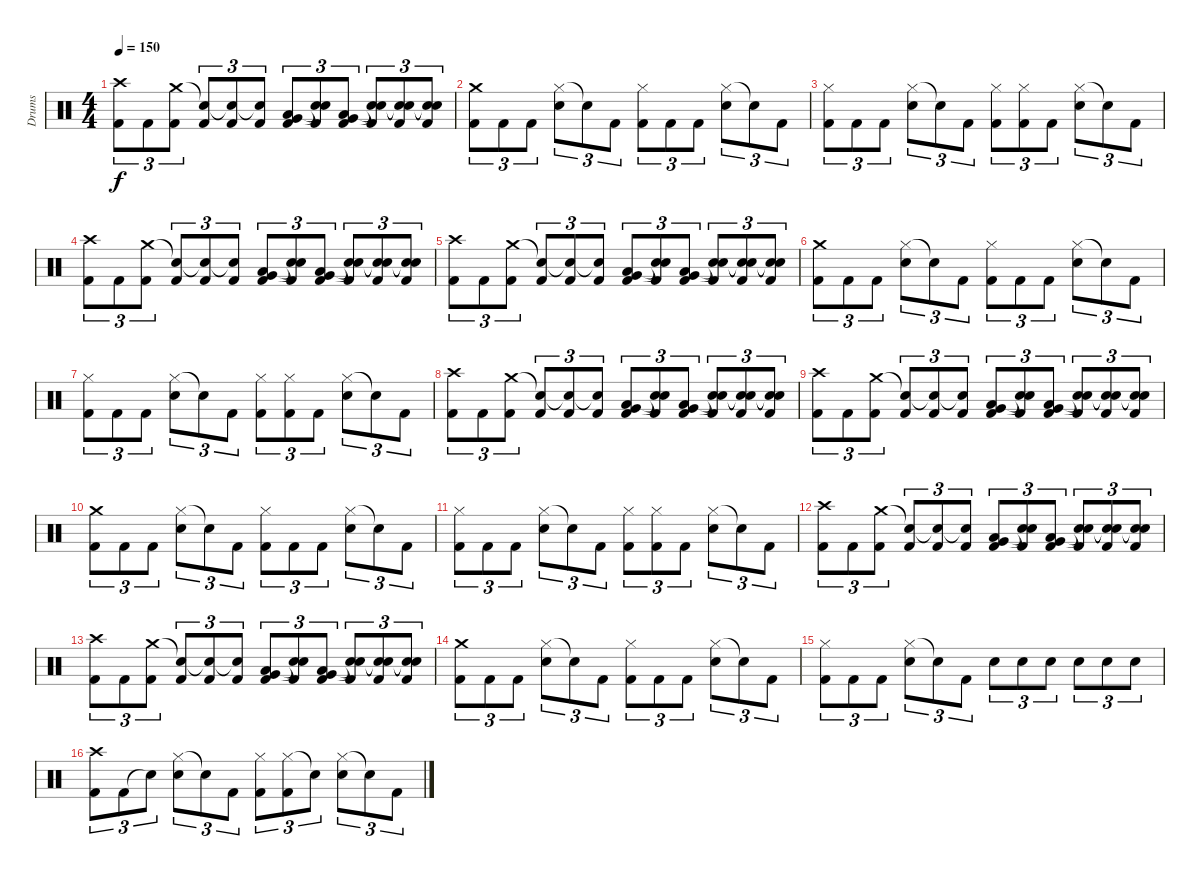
\track ("Drums" "Drums") {instrument percussion}
\staff {score}
\articulation defaults
\ts (4 4)
\tempo 150
\clef neutral
\ks c
("Crash high (hit)" "Kick (hit) 2").8{tu (3 2) dy f} "Kick (hit) 2".8{tu (3 2)} ("Crash medium (hit)" "Kick (hit) 2").8{tu (3 2)} ("Snare (hit)"{t} "Kick (hit) 2").8{tu (3 2)} ("Snare (hit)"{t} "Kick (hit) 2").8{tu (3 2)} ("Snare (hit)"{t} "Kick (hit) 2").8{tu (3 2)} ("Low Tom (hit)" "Very Low Tom (hit)" "Kick (hit) 2").8{tu (3 2)} ("Snare (hit)"{t} "Snare (hit)"{t} "Kick (hit) 2").8{tu (3 2)} ("Low Tom (hit)" "Very Low Tom (hit)" "Kick (hit) 2").8{tu (3 2)} ("Snare (hit)"{t} "Snare (hit)"{t} "Kick (hit) 2").8{tu (3 2)} ("Snare (hit)"{t} "Snare (hit)"{t} "Kick (hit) 2").8{tu (3 2)} ("Snare (hit)"{t} "Snare (hit)"{t} "Kick (hit) 2").8{tu (3 2)} |
("Crash medium (hit)" "Kick (hit) 2").8{tu (3 2)} "Kick (hit) 2".8{tu (3 2)} "Kick (hit) 2".8{tu (3 2)} ("Hi-Hat (closed)" "Electric Snare (hit)").8{tu (3 2)} "Snare (hit)"{t}.8{tu (3 2)} "Kick (hit) 2".8{tu (3 2)} ("Hi-Hat (closed)" "Kick (hit) 2").8{tu (3 2)} "Kick (hit) 2".8{tu (3 2)} "Kick (hit) 2".8{tu (3 2)} ("Hi-Hat (closed)" "Electric Snare (hit)").8{tu (3 2)} "Snare (hit)"{t}.8{tu (3 2)} "Kick (hit) 2".8{tu (3 2)} |
("Hi-Hat (closed)" "Kick (hit) 2").8{tu (3 2)} "Kick (hit) 2".8{tu (3 2)} "Kick (hit) 2".8{tu (3 2)} ("Hi-Hat (closed)" "Electric Snare (hit)").8{tu (3 2)} "Snare (hit)"{t}.8{tu (3 2)} "Kick (hit) 2".8{tu (3 2)} ("Hi-Hat (closed)" "Kick (hit) 2").8{tu (3 2)} ("Hi-Hat (closed)" "Kick (hit) 2").8{tu (3 2)} "Kick (hit) 2".8{tu (3 2)} ("Hi-Hat (closed)" "Electric Snare (hit)").8{tu (3 2)} "Snare (hit)"{t}.8{tu (3 2)} "Kick (hit) 2".8{tu (3 2)} |
("Crash high (hit)" "Kick (hit) 2").8{tu (3 2)} "Kick (hit) 2".8{tu (3 2)} ("Crash medium (hit)" "Kick (hit) 2").8{tu (3 2)} ("Snare (hit)"{t} "Kick (hit) 2").8{tu (3 2)} ("Snare (hit)"{t} "Kick (hit) 2").8{tu (3 2)} ("Snare (hit)"{t} "Kick (hit) 2").8{tu (3 2)} ("Low Tom (hit)" "Very Low Tom (hit)" "Kick (hit) 2").8{tu (3 2)} ("Snare (hit)"{t} "Snare (hit)"{t} "Kick (hit) 2").8{tu (3 2)} ("Low Tom (hit)" "Very Low Tom (hit)" "Kick (hit) 2").8{tu (3 2)} ("Snare (hit)"{t} "Snare (hit)"{t} "Kick (hit) 2").8{tu (3 2)} ("Snare (hit)"{t} "Snare (hit)"{t} "Kick (hit) 2").8{tu (3 2)} ("Snare (hit)"{t} "Snare (hit)"{t} "Kick (hit) 2").8{tu (3 2)} |
("Crash high (hit)" "Kick (hit) 2").8{tu (3 2)} "Kick (hit) 2".8{tu (3 2)} ("Crash medium (hit)" "Kick (hit) 2").8{tu (3 2)} ("Snare (hit)"{t} "Kick (hit) 2").8{tu (3 2)} ("Snare (hit)"{t} "Kick (hit) 2").8{tu (3 2)} ("Snare (hit)"{t} "Kick (hit) 2").8{tu (3 2)} ("Low Tom (hit)" "Very Low Tom (hit)" "Kick (hit) 2").8{tu (3 2)} ("Snare (hit)"{t} "Snare (hit)"{t} "Kick (hit) 2").8{tu (3 2)} ("Low Tom (hit)" "Very Low Tom (hit)" "Kick (hit) 2").8{tu (3 2)} ("Snare (hit)"{t} "Snare (hit)"{t} "Kick (hit) 2").8{tu (3 2)} ("Snare (hit)"{t} "Snare (hit)"{t} "Kick (hit) 2").8{tu (3 2)} ("Snare (hit)"{t} "Snare (hit)"{t} "Kick (hit) 2").8{tu (3 2)} |
("Crash medium (hit)" "Kick (hit) 2").8{tu (3 2)} "Kick (hit) 2".8{tu (3 2)} "Kick (hit) 2".8{tu (3 2)} ("Hi-Hat (closed)" "Electric Snare (hit)").8{tu (3 2)} "Snare (hit)"{t}.8{tu (3 2)} "Kick (hit) 2".8{tu (3 2)} ("Hi-Hat (closed)" "Kick (hit) 2").8{tu (3 2)} "Kick (hit) 2".8{tu (3 2)} "Kick (hit) 2".8{tu (3 2)} ("Hi-Hat (closed)" "Electric Snare (hit)").8{tu (3 2)} "Snare (hit)"{t}.8{tu (3 2)} "Kick (hit) 2".8{tu (3 2)} |
("Hi-Hat (closed)" "Kick (hit) 2").8{tu (3 2)} "Kick (hit) 2".8{tu (3 2)} "Kick (hit) 2".8{tu (3 2)} ("Hi-Hat (closed)" "Electric Snare (hit)").8{tu (3 2)} "Snare (hit)"{t}.8{tu (3 2)} "Kick (hit) 2".8{tu (3 2)} ("Hi-Hat (closed)" "Kick (hit) 2").8{tu (3 2)} ("Hi-Hat (closed)" "Kick (hit) 2").8{tu (3 2)} "Kick (hit) 2".8{tu (3 2)} ("Hi-Hat (closed)" "Electric Snare (hit)").8{tu (3 2)} "Snare (hit)"{t}.8{tu (3 2)} "Kick (hit) 2".8{tu (3 2)} |
("Crash high (hit)" "Kick (hit) 2").8{tu (3 2)} "Kick (hit) 2".8{tu (3 2)} ("Crash medium (hit)" "Kick (hit) 2").8{tu (3 2)} ("Snare (hit)"{t} "Kick (hit) 2").8{tu (3 2)} ("Snare (hit)"{t} "Kick (hit) 2").8{tu (3 2)} ("Snare (hit)"{t} "Kick (hit) 2").8{tu (3 2)} ("Low Tom (hit)" "Very Low Tom (hit)" "Kick (hit) 2").8{tu (3 2)} ("Snare (hit)"{t} "Snare (hit)"{t} "Kick (hit) 2").8{tu (3 2)} ("Low Tom (hit)" "Very Low Tom (hit)" "Kick (hit) 2").8{tu (3 2)} ("Snare (hit)"{t} "Snare (hit)"{t} "Kick (hit) 2").8{tu (3 2)} ("Snare (hit)"{t} "Snare (hit)"{t} "Kick (hit) 2").8{tu (3 2)} ("Snare (hit)"{t} "Snare (hit)"{t} "Kick (hit) 2").8{tu (3 2)} |
("Crash high (hit)" "Kick (hit) 2").8{tu (3 2)} "Kick (hit) 2".8{tu (3 2)} ("Crash medium (hit)" "Kick (hit) 2").8{tu (3 2)} ("Snare (hit)"{t} "Kick (hit) 2").8{tu (3 2)} ("Snare (hit)"{t} "Kick (hit) 2").8{tu (3 2)} ("Snare (hit)"{t} "Kick (hit) 2").8{tu (3 2)} ("Low Tom (hit)" "Very Low Tom (hit)" "Kick (hit) 2").8{tu (3 2)} ("Snare (hit)"{t} "Snare (hit)"{t} "Kick (hit) 2").8{tu (3 2)} ("Low Tom (hit)" "Very Low Tom (hit)" "Kick (hit) 2").8{tu (3 2)} ("Snare (hit)"{t} "Snare (hit)"{t} "Kick (hit) 2").8{tu (3 2)} ("Snare (hit)"{t} "Snare (hit)"{t} "Kick (hit) 2").8{tu (3 2)} ("Snare (hit)"{t} "Snare (hit)"{t} "Kick (hit) 2").8{tu (3 2)} |
("Crash medium (hit)" "Kick (hit) 2").8{tu (3 2)} "Kick (hit) 2".8{tu (3 2)} "Kick (hit) 2".8{tu (3 2)} ("Hi-Hat (closed)" "Electric Snare (hit)").8{tu (3 2)} "Snare (hit)"{t}.8{tu (3 2)} "Kick (hit) 2".8{tu (3 2)} ("Hi-Hat (closed)" "Kick (hit) 2").8{tu (3 2)} "Kick (hit) 2".8{tu (3 2)} "Kick (hit) 2".8{tu (3 2)} ("Hi-Hat (closed)" "Electric Snare (hit)").8{tu (3 2)} "Snare (hit)"{t}.8{tu (3 2)} "Kick (hit) 2".8{tu (3 2)} |
("Hi-Hat (closed)" "Kick (hit) 2").8{tu (3 2)} "Kick (hit) 2".8{tu (3 2)} "Kick (hit) 2".8{tu (3 2)} ("Hi-Hat (closed)" "Electric Snare (hit)").8{tu (3 2)} "Snare (hit)"{t}.8{tu (3 2)} "Kick (hit) 2".8{tu (3 2)} ("Hi-Hat (closed)" "Kick (hit) 2").8{tu (3 2)} ("Hi-Hat (closed)" "Kick (hit) 2").8{tu (3 2)} "Kick (hit) 2".8{tu (3 2)} ("Hi-Hat (closed)" "Electric Snare (hit)").8{tu (3 2)} "Snare (hit)"{t}.8{tu (3 2)} "Kick (hit) 2".8{tu (3 2)} |
("Crash high (hit)" "Kick (hit) 2").8{tu (3 2)} "Kick (hit) 2".8{tu (3 2)} ("Crash medium (hit)" "Kick (hit) 2").8{tu (3 2)} ("Snare (hit)"{t} "Kick (hit) 2").8{tu (3 2)} ("Snare (hit)"{t} "Kick (hit) 2").8{tu (3 2)} ("Snare (hit)"{t} "Kick (hit) 2").8{tu (3 2)} ("Low Tom (hit)" "Very Low Tom (hit)" "Kick (hit) 2").8{tu (3 2)} ("Snare (hit)"{t} "Snare (hit)"{t} "Kick (hit) 2").8{tu (3 2)} ("Low Tom (hit)" "Very Low Tom (hit)" "Kick (hit) 2").8{tu (3 2)} ("Snare (hit)"{t} "Snare (hit)"{t} "Kick (hit) 2").8{tu (3 2)} ("Snare (hit)"{t} "Snare (hit)"{t} "Kick (hit) 2").8{tu (3 2)} ("Snare (hit)"{t} "Snare (hit)"{t} "Kick (hit) 2").8{tu (3 2)} |
("Crash high (hit)" "Kick (hit) 2").8{tu (3 2)} "Kick (hit) 2".8{tu (3 2)} ("Crash medium (hit)" "Kick (hit) 2").8{tu (3 2)} ("Snare (hit)"{t} "Kick (hit) 2").8{tu (3 2)} ("Snare (hit)"{t} "Kick (hit) 2").8{tu (3 2)} ("Snare (hit)"{t} "Kick (hit) 2").8{tu (3 2)} ("Low Tom (hit)" "Very Low Tom (hit)" "Kick (hit) 2").8{tu (3 2)} ("Snare (hit)"{t} "Snare (hit)"{t} "Kick (hit) 2").8{tu (3 2)} ("Low Tom (hit)" "Very Low Tom (hit)" "Kick (hit) 2").8{tu (3 2)} ("Snare (hit)"{t} "Snare (hit)"{t} "Kick (hit) 2").8{tu (3 2)} ("Snare (hit)"{t} "Snare (hit)"{t} "Kick (hit) 2").8{tu (3 2)} ("Snare (hit)"{t} "Snare (hit)"{t} "Kick (hit) 2").8{tu (3 2)} |
("Crash medium (hit)" "Kick (hit) 2").8{tu (3 2)} "Kick (hit) 2".8{tu (3 2)} "Kick (hit) 2".8{tu (3 2)} ("Hi-Hat (closed)" "Electric Snare (hit)").8{tu (3 2)} "Snare (hit)"{t}.8{tu (3 2)} "Kick (hit) 2".8{tu (3 2)} ("Hi-Hat (closed)" "Kick (hit) 2").8{tu (3 2)} "Kick (hit) 2".8{tu (3 2)} "Kick (hit) 2".8{tu (3 2)} ("Hi-Hat (closed)" "Electric Snare (hit)").8{tu (3 2)} "Snare (hit)"{t}.8{tu (3 2)} "Kick (hit) 2".8{tu (3 2)} |
("Hi-Hat (closed)" "Kick (hit) 2").8{tu (3 2)} "Kick (hit) 2".8{tu (3 2)} "Kick (hit) 2".8{tu (3 2)} ("Hi-Hat (closed)" "Electric Snare (hit)").8{tu (3 2)} "Snare (hit)"{t}.8{tu (3 2)} "Kick (hit) 2".8{tu (3 2)} "Electric Snare (hit)".8{tu (3 2)} "Electric Snare (hit)".8{tu (3 2)} "Electric Snare (hit)".8{tu (3 2)} "Electric Snare (hit)".8{tu (3 2)} "Electric Snare (hit)".8{tu (3 2)} "Electric Snare (hit)".8{tu (3 2)} |
("Crash high (hit)" "Kick (hit) 2").8{tu (3 2)} "Kick (hit) 2".8{tu (3 2)} "Snare (hit)"{t}.8{tu (3 2)} ("Hi-Hat (closed)" "Electric Snare (hit)").8{tu (3 2)} "Snare (hit)"{t}.8{tu (3 2)} "Kick (hit) 2".8{tu (3 2)} ("Hi-Hat (closed)" "Kick (hit) 2").8{tu (3 2)} ("Hi-Hat (closed)" "Kick (hit) 2").8{tu (3 2)} "Snare (hit)"{t}.8{tu (3 2)} ("Hi-Hat (closed)" "Electric Snare (hit)").8{tu (3 2)} "Snare (hit)"{t}.8{tu (3 2)} "Kick (hit) 2".8{tu (3 2)}
